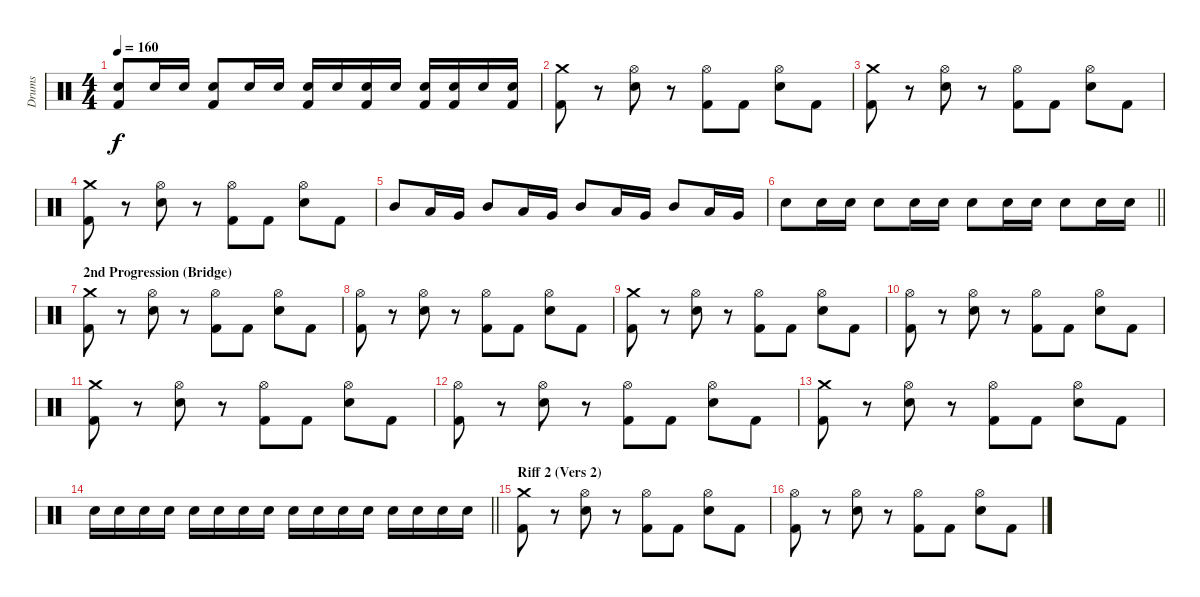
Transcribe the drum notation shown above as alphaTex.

\track ("Drums" "Drums") {instrument percussion}
\staff {score}
\articulation defaults
\ts (4 4)
\tempo 160
\clef neutral
\ks c
("Snare (hit) 2" "Kick (hit) 2").8{dy f} "Snare (hit) 2".16 "Snare (hit) 2".16 ("Snare (hit) 2" "Kick (hit) 2").8 "Snare (hit) 2".16 "Snare (hit) 2".16 ("Snare (hit) 2" "Kick (hit) 2").16 "Snare (hit) 2".16 ("Snare (hit) 2" "Kick (hit) 2").16 "Snare (hit) 2".16 ("Snare (hit) 2" "Kick (hit) 2").16 ("Snare (hit) 2" "Kick (hit) 2").16 "Snare (hit) 2".16 ("Snare (hit) 2" "Kick (hit) 2").16 |
("Crash medium (hit)" "Kick (hit) 2").8 r.8 ("Hi-Hat (open)" "Snare (hit) 2").8 r.8 ("Hi-Hat (open)" "Kick (hit) 2").8 "Kick (hit) 2".8 ("Hi-Hat (open)" "Snare (hit) 2").8 "Kick (hit) 2".8 |
("Crash medium (hit)" "Kick (hit) 2").8 r.8 ("Hi-Hat (open)" "Snare (hit) 2").8 r.8 ("Hi-Hat (open)" "Kick (hit) 2").8 "Kick (hit) 2".8 ("Hi-Hat (open)" "Snare (hit) 2").8 "Kick (hit) 2".8 |
("Crash medium (hit)" "Kick (hit) 2").8 r.8 ("Hi-Hat (open)" "Snare (hit) 2").8 r.8 ("Hi-Hat (open)" "Kick (hit) 2").8 "Kick (hit) 2".8 ("Hi-Hat (open)" "Snare (hit) 2").8 "Kick (hit) 2".8 |
"Mid Tom (hit)".8 "Low Tom (hit)".16 "Very Low Tom (hit)".16 "Mid Tom (hit)".8 "Low Tom (hit)".16 "Very Low Tom (hit)".16 "Mid Tom (hit)".8 "Low Tom (hit)".16 "Very Low Tom (hit)".16 "Mid Tom (hit)".8 "Low Tom (hit)".16 "Very Low Tom (hit)".16 |
\barLineRight lightlight "Snare (hit) 2".8 "Snare (hit) 2".16 "Snare (hit) 2".16 "Snare (hit) 2".8 "Snare (hit) 2".16 "Snare (hit) 2".16 "Snare (hit) 2".8 "Snare (hit) 2".16 "Snare (hit) 2".16 "Snare (hit) 2".8 "Snare (hit) 2".16 "Snare (hit) 2".16
|
\section ("" "2nd Progression (Bridge)")
("Crash medium (hit)" "Kick (hit) 2").8 r.8 ("Hi-Hat (open)" "Snare (hit) 2").8 r.8 ("Hi-Hat (open)" "Kick (hit) 2").8 "Kick (hit) 2".8 ("Hi-Hat (open)" "Snare (hit) 2").8 "Kick (hit) 2".8 |
("Hi-Hat (open)" "Kick (hit) 2").8 r.8 ("Hi-Hat (open)" "Snare (hit) 2").8 r.8 ("Hi-Hat (open)" "Kick (hit) 2").8 "Kick (hit) 2".8 ("Hi-Hat (open)" "Snare (hit) 2").8 "Kick (hit) 2".8 |
("Crash medium (hit)" "Kick (hit) 2").8 r.8 ("Hi-Hat (open)" "Snare (hit) 2").8 r.8 ("Hi-Hat (open)" "Kick (hit) 2").8 "Kick (hit) 2".8 ("Hi-Hat (open)" "Snare (hit) 2").8 "Kick (hit) 2".8 |
("Hi-Hat (open)" "Kick (hit) 2").8 r.8 ("Hi-Hat (open)" "Snare (hit) 2").8 r.8 ("Hi-Hat (open)" "Kick (hit) 2").8 "Kick (hit) 2".8 ("Hi-Hat (open)" "Snare (hit) 2").8 "Kick (hit) 2".8 |
("Crash medium (hit)" "Kick (hit) 2").8 r.8 ("Hi-Hat (open)" "Snare (hit) 2").8 r.8 ("Hi-Hat (open)" "Kick (hit) 2").8 "Kick (hit) 2".8 ("Hi-Hat (open)" "Snare (hit) 2").8 "Kick (hit) 2".8 |
("Hi-Hat (open)" "Kick (hit) 2").8 r.8 ("Hi-Hat (open)" "Snare (hit) 2").8 r.8 ("Hi-Hat (open)" "Kick (hit) 2").8 "Kick (hit) 2".8 ("Hi-Hat (open)" "Snare (hit) 2").8 "Kick (hit) 2".8 |
("Crash medium (hit)" "Kick (hit) 2").8 r.8 ("Hi-Hat (open)" "Snare (hit) 2").8 r.8 ("Hi-Hat (open)" "Kick (hit) 2").8 "Kick (hit) 2".8 ("Hi-Hat (open)" "Snare (hit) 2").8 "Kick (hit) 2".8 |
\barLineRight lightlight "Snare (hit) 2".16 "Snare (hit) 2".16 "Snare (hit) 2".16 "Snare (hit) 2".16 "Snare (hit) 2".16 "Snare (hit) 2".16 "Snare (hit) 2".16 "Snare (hit) 2".16 "Snare (hit) 2".16 "Snare (hit) 2".16 "Snare (hit) 2".16 "Snare (hit) 2".16 "Snare (hit) 2".16 "Snare (hit) 2".16 "Snare (hit) 2".16 "Snare (hit) 2".16
|
\section ("" "Riff 2 (Vers 2)")
("Crash medium (hit)" "Kick (hit) 2").8 r.8 ("Hi-Hat (open)" "Snare (hit) 2").8 r.8 ("Hi-Hat (open)" "Kick (hit) 2").8 "Kick (hit) 2".8 ("Hi-Hat (open)" "Snare (hit) 2").8 "Kick (hit) 2".8 |
("Hi-Hat (open)" "Kick (hit) 2").8 r.8 ("Hi-Hat (open)" "Snare (hit) 2").8 r.8 ("Hi-Hat (open)" "Kick (hit) 2").8 "Kick (hit) 2".8 ("Hi-Hat (open)" "Snare (hit) 2").8 "Kick (hit) 2".8
